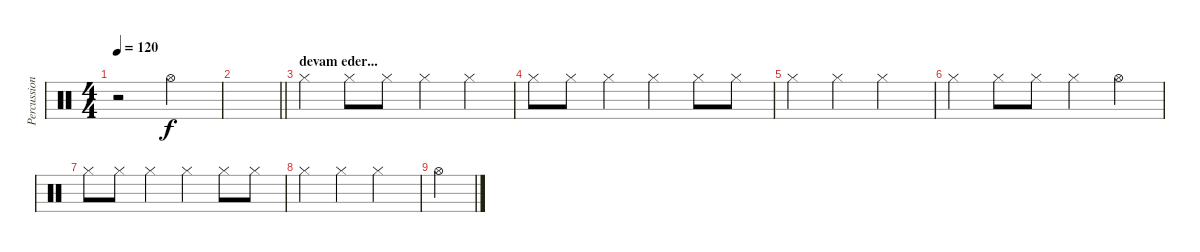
\track ("Percussion" "Percussion") {instrument percussion}
\staff {score}
\articulation defaults
\ts (4 4)
\tempo 120
\clef neutral
\ks c
r.2{dy f} "Hi-Hat (open)".2 |
\barLineRight lightlight
|
\section ("" "devam eder...")
"Hi-Hat (closed)".4 "Hi-Hat (closed)".8 "Hi-Hat (closed)".8 "Hi-Hat (closed)".4 "Hi-Hat (closed)".4 |
"Hi-Hat (closed)".8 "Hi-Hat (closed)".8 "Hi-Hat (closed)".4 "Hi-Hat (closed)".4 "Hi-Hat (closed)".8 "Hi-Hat (closed)".8 |
"Hi-Hat (closed)".4 "Hi-Hat (closed)".4 "Hi-Hat (closed)".2 |
"Hi-Hat (closed)".4 "Hi-Hat (closed)".8 "Hi-Hat (closed)".8 "Hi-Hat (closed)".4 "Hi-Hat (open)".4 |
"Hi-Hat (closed)".8 "Hi-Hat (closed)".8 "Hi-Hat (closed)".4 "Hi-Hat (closed)".4 "Hi-Hat (closed)".8 "Hi-Hat (closed)".8 |
"Hi-Hat (closed)".4 "Hi-Hat (closed)".4 "Hi-Hat (closed)".2 |
"Hi-Hat (open)".4
